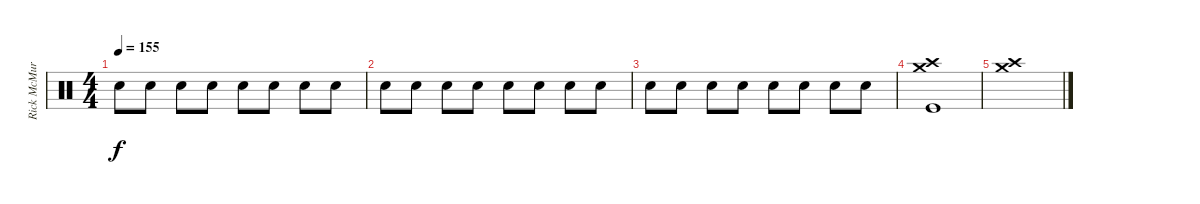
\track ("Rick McMurray" "Rick McMur") {instrument percussion}
\staff {score}
\articulation defaults
\ts (4 4)
\tempo 155
\clef neutral
\ks c "Snare (hit) 2".8{dy f} "Snare (hit) 2".8 "Snare (hit) 2".8 "Snare (hit) 2".8 "Snare (hit) 2".8 "Snare (hit) 2".8 "Snare (hit) 2".8 "Snare (hit) 2".8
|
"Snare (hit) 2".8 "Snare (hit) 2".8 "Snare (hit) 2".8 "Snare (hit) 2".8 "Snare (hit) 2".8 "Snare (hit) 2".8 "Snare (hit) 2".8 "Snare (hit) 2".8 |
"Snare (hit) 2".8 "Snare (hit) 2".8 "Snare (hit) 2".8 "Snare (hit) 2".8 "Snare (hit) 2".8 "Snare (hit) 2".8 "Snare (hit) 2".8 "Snare (hit) 2".8 |
("Crash high (hit)" "Crash medium (hit)" "Kick (hit)").1 |
("Crash high (hit)" "Crash medium (hit)").1
